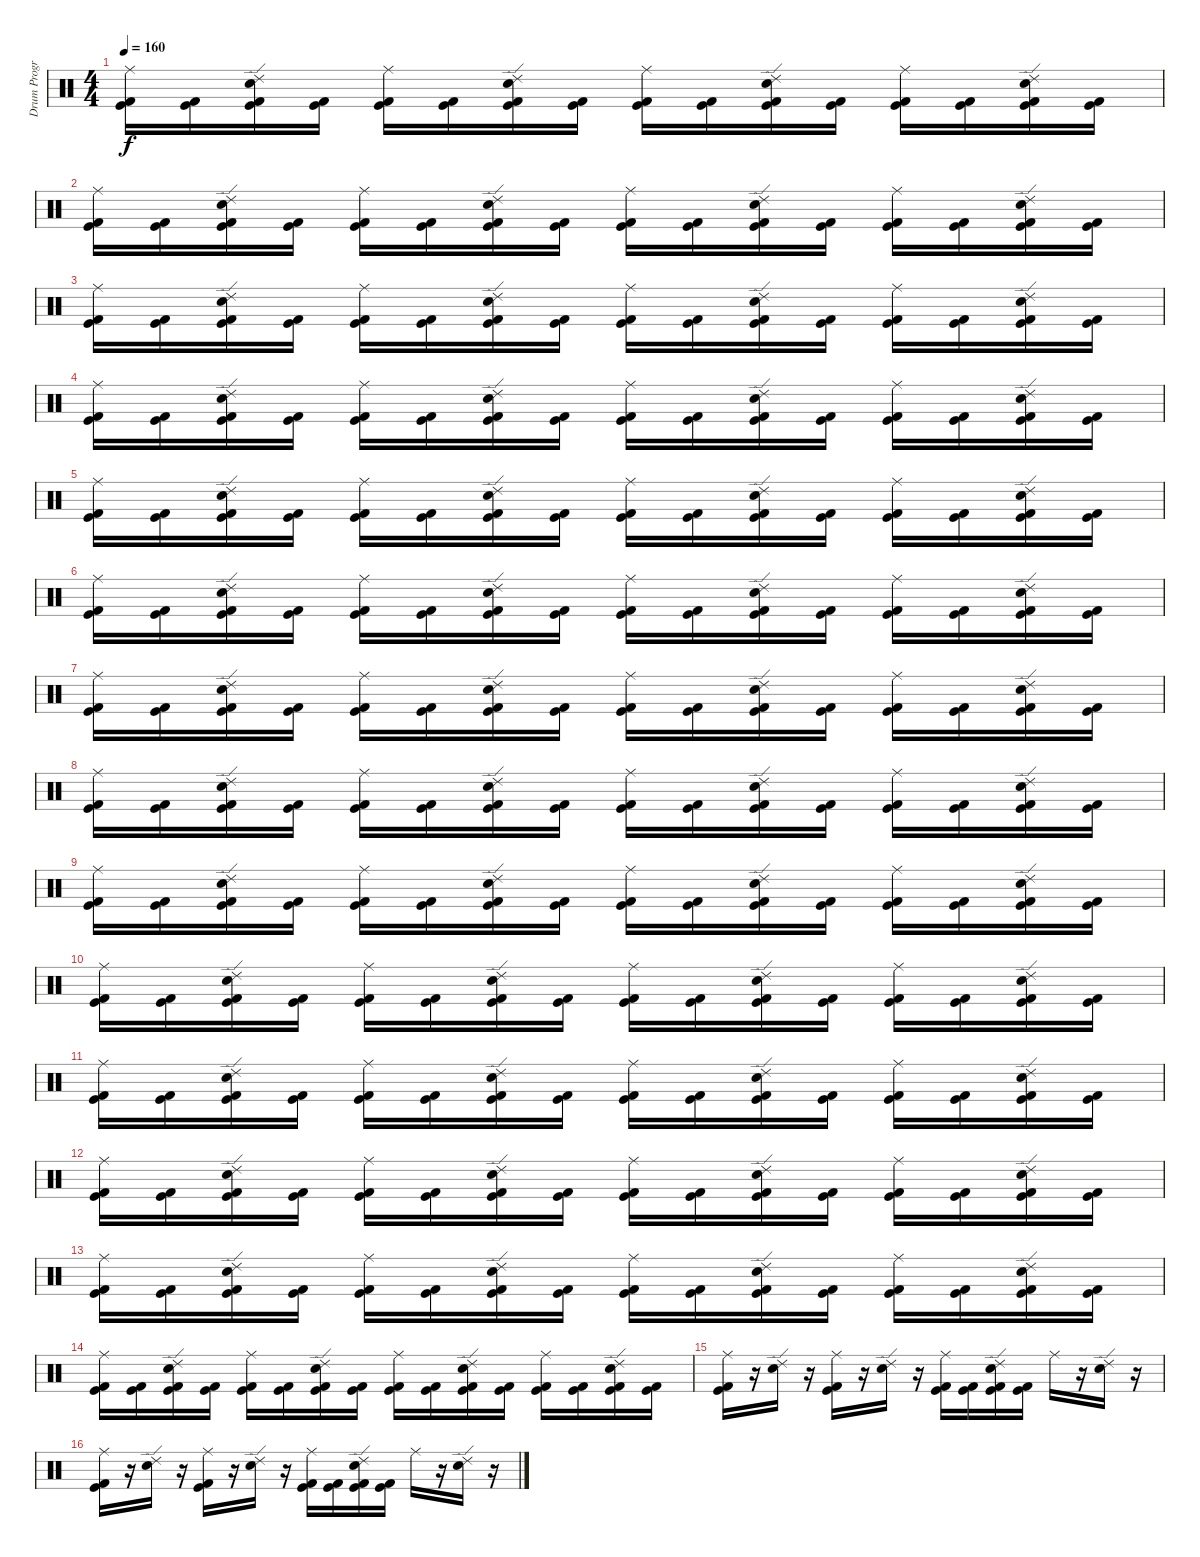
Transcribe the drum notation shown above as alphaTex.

\track ("Drum Program - BG" "Drum Progr") {instrument percussion}
\staff {score}
\articulation defaults
\ts (4 4)
\tempo 160
\clef neutral
\ks c
("Kick (hit)" "Kick (hit) 2" "Ride (middle)").16{dy f} ("Kick (hit)" "Kick (hit) 2").16 ("Kick (hit)" "Kick (hit) 2" "Electric Snare (hit)" "Ride (edge) 2").16 ("Kick (hit)" "Kick (hit) 2").16 ("Kick (hit)" "Kick (hit) 2" "Ride (middle)").16 ("Kick (hit)" "Kick (hit) 2").16 ("Kick (hit)" "Kick (hit) 2" "Electric Snare (hit)" "Ride (edge) 2").16 ("Kick (hit)" "Kick (hit) 2").16 ("Kick (hit)" "Kick (hit) 2" "Ride (middle)").16 ("Kick (hit)" "Kick (hit) 2").16 ("Kick (hit)" "Kick (hit) 2" "Electric Snare (hit)" "Ride (edge) 2").16 ("Kick (hit)" "Kick (hit) 2").16 ("Kick (hit)" "Kick (hit) 2" "Ride (middle)").16 ("Kick (hit)" "Kick (hit) 2").16 ("Kick (hit)" "Kick (hit) 2" "Electric Snare (hit)" "Ride (edge) 2").16 ("Kick (hit)" "Kick (hit) 2").16 |
("Kick (hit)" "Kick (hit) 2" "Ride (middle)").16 ("Kick (hit)" "Kick (hit) 2").16 ("Kick (hit)" "Kick (hit) 2" "Electric Snare (hit)" "Ride (edge) 2").16 ("Kick (hit)" "Kick (hit) 2").16 ("Kick (hit)" "Kick (hit) 2" "Ride (middle)").16 ("Kick (hit)" "Kick (hit) 2").16 ("Kick (hit)" "Kick (hit) 2" "Electric Snare (hit)" "Ride (edge) 2").16 ("Kick (hit)" "Kick (hit) 2").16 ("Kick (hit)" "Kick (hit) 2" "Ride (middle)").16 ("Kick (hit)" "Kick (hit) 2").16 ("Kick (hit)" "Kick (hit) 2" "Electric Snare (hit)" "Ride (edge) 2").16 ("Kick (hit)" "Kick (hit) 2").16 ("Kick (hit)" "Kick (hit) 2" "Ride (middle)").16 ("Kick (hit)" "Kick (hit) 2").16 ("Kick (hit)" "Kick (hit) 2" "Electric Snare (hit)" "Ride (edge) 2").16 ("Kick (hit)" "Kick (hit) 2").16 |
("Kick (hit)" "Kick (hit) 2" "Ride (middle)").16 ("Kick (hit)" "Kick (hit) 2").16 ("Kick (hit)" "Kick (hit) 2" "Electric Snare (hit)" "Ride (edge) 2").16 ("Kick (hit)" "Kick (hit) 2").16 ("Kick (hit)" "Kick (hit) 2" "Ride (middle)").16 ("Kick (hit)" "Kick (hit) 2").16 ("Kick (hit)" "Kick (hit) 2" "Electric Snare (hit)" "Ride (edge) 2").16 ("Kick (hit)" "Kick (hit) 2").16 ("Kick (hit)" "Kick (hit) 2" "Ride (middle)").16 ("Kick (hit)" "Kick (hit) 2").16 ("Kick (hit)" "Kick (hit) 2" "Electric Snare (hit)" "Ride (edge) 2").16 ("Kick (hit)" "Kick (hit) 2").16 ("Kick (hit)" "Kick (hit) 2" "Ride (middle)").16 ("Kick (hit)" "Kick (hit) 2").16 ("Kick (hit)" "Kick (hit) 2" "Electric Snare (hit)" "Ride (edge) 2").16 ("Kick (hit)" "Kick (hit) 2").16 |
("Kick (hit)" "Kick (hit) 2" "Ride (middle)").16 ("Kick (hit)" "Kick (hit) 2").16 ("Kick (hit)" "Kick (hit) 2" "Electric Snare (hit)" "Ride (edge) 2").16 ("Kick (hit)" "Kick (hit) 2").16 ("Kick (hit)" "Kick (hit) 2" "Ride (middle)").16 ("Kick (hit)" "Kick (hit) 2").16 ("Kick (hit)" "Kick (hit) 2" "Electric Snare (hit)" "Ride (edge) 2").16 ("Kick (hit)" "Kick (hit) 2").16 ("Kick (hit)" "Kick (hit) 2" "Ride (middle)").16 ("Kick (hit)" "Kick (hit) 2").16 ("Kick (hit)" "Kick (hit) 2" "Electric Snare (hit)" "Ride (edge) 2").16 ("Kick (hit)" "Kick (hit) 2").16 ("Kick (hit)" "Kick (hit) 2" "Ride (middle)").16 ("Kick (hit)" "Kick (hit) 2").16 ("Kick (hit)" "Kick (hit) 2" "Electric Snare (hit)" "Ride (edge) 2").16 ("Kick (hit)" "Kick (hit) 2").16 |
("Kick (hit)" "Kick (hit) 2" "Ride (middle)").16 ("Kick (hit)" "Kick (hit) 2").16 ("Kick (hit)" "Kick (hit) 2" "Electric Snare (hit)" "Ride (edge) 2").16 ("Kick (hit)" "Kick (hit) 2").16 ("Kick (hit)" "Kick (hit) 2" "Ride (middle)").16 ("Kick (hit)" "Kick (hit) 2").16 ("Kick (hit)" "Kick (hit) 2" "Electric Snare (hit)" "Ride (edge) 2").16 ("Kick (hit)" "Kick (hit) 2").16 ("Kick (hit)" "Kick (hit) 2" "Ride (middle)").16 ("Kick (hit)" "Kick (hit) 2").16 ("Kick (hit)" "Kick (hit) 2" "Electric Snare (hit)" "Ride (edge) 2").16 ("Kick (hit)" "Kick (hit) 2").16 ("Kick (hit)" "Kick (hit) 2" "Ride (middle)").16 ("Kick (hit)" "Kick (hit) 2").16 ("Kick (hit)" "Kick (hit) 2" "Electric Snare (hit)" "Ride (edge) 2").16 ("Kick (hit)" "Kick (hit) 2").16 |
("Kick (hit)" "Kick (hit) 2" "Ride (middle)").16 ("Kick (hit)" "Kick (hit) 2").16 ("Kick (hit)" "Kick (hit) 2" "Electric Snare (hit)" "Ride (edge) 2").16 ("Kick (hit)" "Kick (hit) 2").16 ("Kick (hit)" "Kick (hit) 2" "Ride (middle)").16 ("Kick (hit)" "Kick (hit) 2").16 ("Kick (hit)" "Kick (hit) 2" "Electric Snare (hit)" "Ride (edge) 2").16 ("Kick (hit)" "Kick (hit) 2").16 ("Kick (hit)" "Kick (hit) 2" "Ride (middle)").16 ("Kick (hit)" "Kick (hit) 2").16 ("Kick (hit)" "Kick (hit) 2" "Electric Snare (hit)" "Ride (edge) 2").16 ("Kick (hit)" "Kick (hit) 2").16 ("Kick (hit)" "Kick (hit) 2" "Ride (middle)").16 ("Kick (hit)" "Kick (hit) 2").16 ("Kick (hit)" "Kick (hit) 2" "Electric Snare (hit)" "Ride (edge) 2").16 ("Kick (hit)" "Kick (hit) 2").16 |
("Kick (hit)" "Kick (hit) 2" "Ride (middle)").16 ("Kick (hit)" "Kick (hit) 2").16 ("Kick (hit)" "Kick (hit) 2" "Electric Snare (hit)" "Ride (edge) 2").16 ("Kick (hit)" "Kick (hit) 2").16 ("Kick (hit)" "Kick (hit) 2" "Ride (middle)").16 ("Kick (hit)" "Kick (hit) 2").16 ("Kick (hit)" "Kick (hit) 2" "Electric Snare (hit)" "Ride (edge) 2").16 ("Kick (hit)" "Kick (hit) 2").16 ("Kick (hit)" "Kick (hit) 2" "Ride (middle)").16 ("Kick (hit)" "Kick (hit) 2").16 ("Kick (hit)" "Kick (hit) 2" "Electric Snare (hit)" "Ride (edge) 2").16 ("Kick (hit)" "Kick (hit) 2").16 ("Kick (hit)" "Kick (hit) 2" "Ride (middle)").16 ("Kick (hit)" "Kick (hit) 2").16 ("Kick (hit)" "Kick (hit) 2" "Electric Snare (hit)" "Ride (edge) 2").16 ("Kick (hit)" "Kick (hit) 2").16 |
("Kick (hit)" "Kick (hit) 2" "Ride (middle)").16 ("Kick (hit)" "Kick (hit) 2").16 ("Kick (hit)" "Kick (hit) 2" "Electric Snare (hit)" "Ride (edge) 2").16 ("Kick (hit)" "Kick (hit) 2").16 ("Kick (hit)" "Kick (hit) 2" "Ride (middle)").16 ("Kick (hit)" "Kick (hit) 2").16 ("Kick (hit)" "Kick (hit) 2" "Electric Snare (hit)" "Ride (edge) 2").16 ("Kick (hit)" "Kick (hit) 2").16 ("Kick (hit)" "Kick (hit) 2" "Ride (middle)").16 ("Kick (hit)" "Kick (hit) 2").16 ("Kick (hit)" "Kick (hit) 2" "Electric Snare (hit)" "Ride (edge) 2").16 ("Kick (hit)" "Kick (hit) 2").16 ("Kick (hit)" "Kick (hit) 2" "Ride (middle)").16 ("Kick (hit)" "Kick (hit) 2").16 ("Kick (hit)" "Kick (hit) 2" "Electric Snare (hit)" "Ride (edge) 2").16 ("Kick (hit)" "Kick (hit) 2").16 |
("Kick (hit)" "Kick (hit) 2" "Ride (middle)").16 ("Kick (hit)" "Kick (hit) 2").16 ("Kick (hit)" "Kick (hit) 2" "Electric Snare (hit)" "Ride (edge) 2").16 ("Kick (hit)" "Kick (hit) 2").16 ("Kick (hit)" "Kick (hit) 2" "Ride (middle)").16 ("Kick (hit)" "Kick (hit) 2").16 ("Kick (hit)" "Kick (hit) 2" "Electric Snare (hit)" "Ride (edge) 2").16 ("Kick (hit)" "Kick (hit) 2").16 ("Kick (hit)" "Kick (hit) 2" "Ride (middle)").16 ("Kick (hit)" "Kick (hit) 2").16 ("Kick (hit)" "Kick (hit) 2" "Electric Snare (hit)" "Ride (edge) 2").16 ("Kick (hit)" "Kick (hit) 2").16 ("Kick (hit)" "Kick (hit) 2" "Ride (middle)").16 ("Kick (hit)" "Kick (hit) 2").16 ("Kick (hit)" "Kick (hit) 2" "Electric Snare (hit)" "Ride (edge) 2").16 ("Kick (hit)" "Kick (hit) 2").16 |
("Kick (hit)" "Kick (hit) 2" "Ride (middle)").16 ("Kick (hit)" "Kick (hit) 2").16 ("Kick (hit)" "Kick (hit) 2" "Electric Snare (hit)" "Ride (edge) 2").16 ("Kick (hit)" "Kick (hit) 2").16 ("Kick (hit)" "Kick (hit) 2" "Ride (middle)").16 ("Kick (hit)" "Kick (hit) 2").16 ("Kick (hit)" "Kick (hit) 2" "Electric Snare (hit)" "Ride (edge) 2").16 ("Kick (hit)" "Kick (hit) 2").16 ("Kick (hit)" "Kick (hit) 2" "Ride (middle)").16 ("Kick (hit)" "Kick (hit) 2").16 ("Kick (hit)" "Kick (hit) 2" "Electric Snare (hit)" "Ride (edge) 2").16 ("Kick (hit)" "Kick (hit) 2").16 ("Kick (hit)" "Kick (hit) 2" "Ride (middle)").16 ("Kick (hit)" "Kick (hit) 2").16 ("Kick (hit)" "Kick (hit) 2" "Electric Snare (hit)" "Ride (edge) 2").16 ("Kick (hit)" "Kick (hit) 2").16 |
("Kick (hit)" "Kick (hit) 2" "Ride (middle)").16 ("Kick (hit)" "Kick (hit) 2").16 ("Kick (hit)" "Kick (hit) 2" "Electric Snare (hit)" "Ride (edge) 2").16 ("Kick (hit)" "Kick (hit) 2").16 ("Kick (hit)" "Kick (hit) 2" "Ride (middle)").16 ("Kick (hit)" "Kick (hit) 2").16 ("Kick (hit)" "Kick (hit) 2" "Electric Snare (hit)" "Ride (edge) 2").16 ("Kick (hit)" "Kick (hit) 2").16 ("Kick (hit)" "Kick (hit) 2" "Ride (middle)").16 ("Kick (hit)" "Kick (hit) 2").16 ("Kick (hit)" "Kick (hit) 2" "Electric Snare (hit)" "Ride (edge) 2").16 ("Kick (hit)" "Kick (hit) 2").16 ("Kick (hit)" "Kick (hit) 2" "Ride (middle)").16 ("Kick (hit)" "Kick (hit) 2").16 ("Kick (hit)" "Kick (hit) 2" "Electric Snare (hit)" "Ride (edge) 2").16 ("Kick (hit)" "Kick (hit) 2").16 |
("Kick (hit)" "Kick (hit) 2" "Ride (middle)").16 ("Kick (hit)" "Kick (hit) 2").16 ("Kick (hit)" "Kick (hit) 2" "Electric Snare (hit)" "Ride (edge) 2").16 ("Kick (hit)" "Kick (hit) 2").16 ("Kick (hit)" "Kick (hit) 2" "Ride (middle)").16 ("Kick (hit)" "Kick (hit) 2").16 ("Kick (hit)" "Kick (hit) 2" "Electric Snare (hit)" "Ride (edge) 2").16 ("Kick (hit)" "Kick (hit) 2").16 ("Kick (hit)" "Kick (hit) 2" "Ride (middle)").16 ("Kick (hit)" "Kick (hit) 2").16 ("Kick (hit)" "Kick (hit) 2" "Electric Snare (hit)" "Ride (edge) 2").16 ("Kick (hit)" "Kick (hit) 2").16 ("Kick (hit)" "Kick (hit) 2" "Ride (middle)").16 ("Kick (hit)" "Kick (hit) 2").16 ("Kick (hit)" "Kick (hit) 2" "Electric Snare (hit)" "Ride (edge) 2").16 ("Kick (hit)" "Kick (hit) 2").16 |
("Kick (hit)" "Kick (hit) 2" "Ride (middle)").16 ("Kick (hit)" "Kick (hit) 2").16 ("Kick (hit)" "Kick (hit) 2" "Electric Snare (hit)" "Ride (edge) 2").16 ("Kick (hit)" "Kick (hit) 2").16 ("Kick (hit)" "Kick (hit) 2" "Ride (middle)").16 ("Kick (hit)" "Kick (hit) 2").16 ("Kick (hit)" "Kick (hit) 2" "Electric Snare (hit)" "Ride (edge) 2").16 ("Kick (hit)" "Kick (hit) 2").16 ("Kick (hit)" "Kick (hit) 2" "Ride (middle)").16 ("Kick (hit)" "Kick (hit) 2").16 ("Kick (hit)" "Kick (hit) 2" "Electric Snare (hit)" "Ride (edge) 2").16 ("Kick (hit)" "Kick (hit) 2").16 ("Kick (hit)" "Kick (hit) 2" "Ride (middle)").16 ("Kick (hit)" "Kick (hit) 2").16 ("Kick (hit)" "Kick (hit) 2" "Electric Snare (hit)" "Ride (edge) 2").16 ("Kick (hit)" "Kick (hit) 2").16 |
("Kick (hit)" "Kick (hit) 2" "Ride (middle)").16 ("Kick (hit)" "Kick (hit) 2").16 ("Kick (hit)" "Kick (hit) 2" "Electric Snare (hit)" "Ride (edge) 2").16 ("Kick (hit)" "Kick (hit) 2").16 ("Kick (hit)" "Kick (hit) 2" "Ride (middle)").16 ("Kick (hit)" "Kick (hit) 2").16 ("Kick (hit)" "Kick (hit) 2" "Electric Snare (hit)" "Ride (edge) 2").16 ("Kick (hit)" "Kick (hit) 2").16 ("Kick (hit)" "Kick (hit) 2" "Ride (middle)").16 ("Kick (hit)" "Kick (hit) 2").16 ("Kick (hit)" "Kick (hit) 2" "Electric Snare (hit)" "Ride (edge) 2").16 ("Kick (hit)" "Kick (hit) 2").16 ("Kick (hit)" "Kick (hit) 2" "Ride (middle)").16 ("Kick (hit)" "Kick (hit) 2").16 ("Kick (hit)" "Kick (hit) 2" "Electric Snare (hit)" "Ride (edge) 2").16 ("Kick (hit)" "Kick (hit) 2").16 |
("Kick (hit) 2" "Kick (hit)" "Ride (middle)").16 r.16 ("Electric Snare (hit)" "Ride (edge) 2").16 r.16 ("Kick (hit)" "Kick (hit) 2" "Ride (middle)").16 r.16 ("Electric Snare (hit)" "Ride (edge) 2").16 r.16 ("Kick (hit)" "Kick (hit) 2" "Ride (middle)").16 ("Kick (hit)" "Kick (hit) 2").16 ("Kick (hit)" "Kick (hit) 2" "Electric Snare (hit)" "Ride (edge) 2").16 ("Kick (hit)" "Kick (hit) 2").16 "Ride (middle)".16 r.16 ("Electric Snare (hit)" "Ride (edge) 2").16 r.16 |
("Kick (hit) 2" "Kick (hit)" "Ride (middle)").16 r.16 ("Electric Snare (hit)" "Ride (edge) 2").16 r.16 ("Kick (hit)" "Kick (hit) 2" "Ride (middle)").16 r.16 ("Electric Snare (hit)" "Ride (edge) 2").16 r.16 ("Kick (hit)" "Kick (hit) 2" "Ride (middle)").16 ("Kick (hit)" "Kick (hit) 2").16 ("Kick (hit)" "Kick (hit) 2" "Electric Snare (hit)" "Ride (edge) 2").16 ("Kick (hit)" "Kick (hit) 2").16 "Ride (middle)".16 r.16 ("Electric Snare (hit)" "Ride (edge) 2").16 r.16
